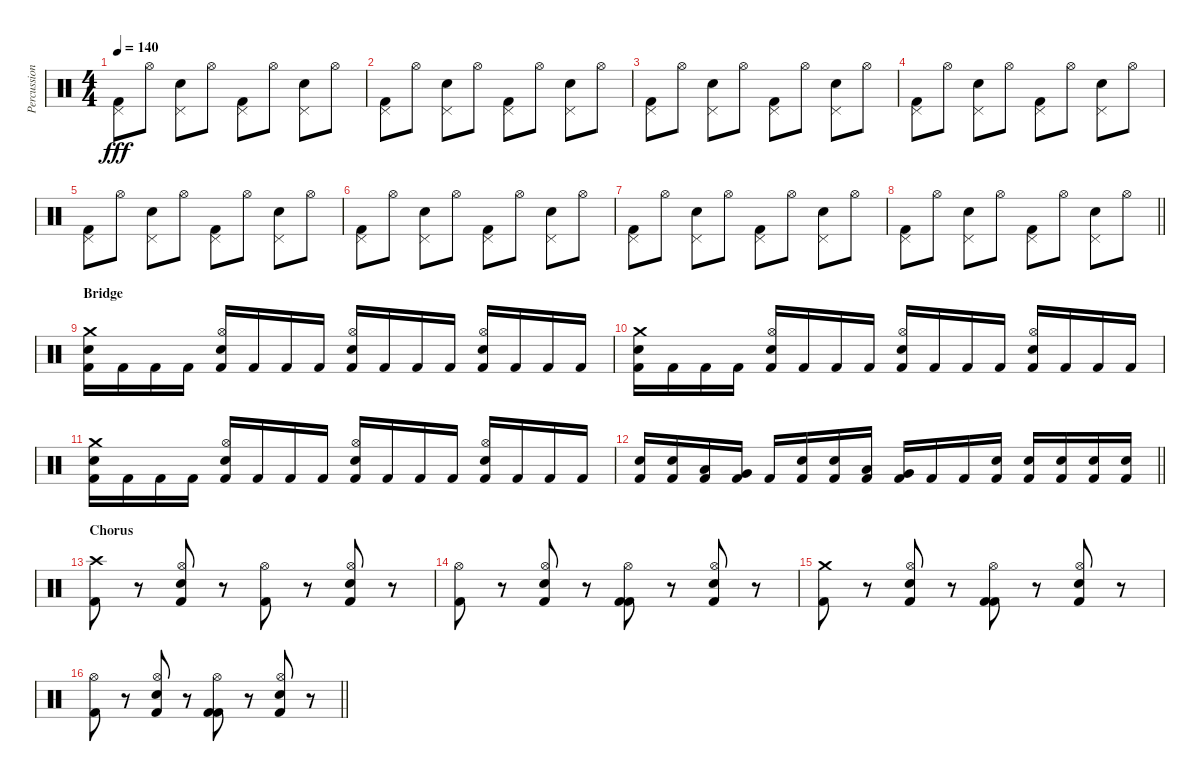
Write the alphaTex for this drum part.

\track ("Percussion" "Percussion") {instrument percussion}
\staff {score}
\articulation defaults
\ts (4 4)
\tempo 140
\clef neutral
\ks c
("Pedal Hi-Hat (hit)" "Kick (hit) 2").8{dy fff} "Hi-Hat (open)".8 ("Pedal Hi-Hat (hit)" "Electric Snare (hit)").8 "Hi-Hat (open)".8 ("Pedal Hi-Hat (hit)" "Kick (hit) 2").8 "Hi-Hat (open)".8 ("Pedal Hi-Hat (hit)" "Electric Snare (hit)").8 "Hi-Hat (open)".8 |
("Pedal Hi-Hat (hit)" "Kick (hit) 2").8 "Hi-Hat (open)".8 ("Pedal Hi-Hat (hit)" "Electric Snare (hit)").8 "Hi-Hat (open)".8 ("Pedal Hi-Hat (hit)" "Kick (hit) 2").8 "Hi-Hat (open)".8 ("Pedal Hi-Hat (hit)" "Electric Snare (hit)").8 "Hi-Hat (open)".8 |
("Pedal Hi-Hat (hit)" "Kick (hit) 2").8 "Hi-Hat (open)".8 ("Pedal Hi-Hat (hit)" "Electric Snare (hit)").8 "Hi-Hat (open)".8 ("Pedal Hi-Hat (hit)" "Kick (hit) 2").8 "Hi-Hat (open)".8 ("Pedal Hi-Hat (hit)" "Electric Snare (hit)").8 "Hi-Hat (open)".8 |
("Pedal Hi-Hat (hit)" "Kick (hit) 2").8 "Hi-Hat (open)".8 ("Pedal Hi-Hat (hit)" "Electric Snare (hit)").8 "Hi-Hat (open)".8 ("Pedal Hi-Hat (hit)" "Kick (hit) 2").8 "Hi-Hat (open)".8 ("Pedal Hi-Hat (hit)" "Electric Snare (hit)").8 "Hi-Hat (open)".8 |
("Pedal Hi-Hat (hit)" "Kick (hit) 2").8 "Hi-Hat (open)".8 ("Pedal Hi-Hat (hit)" "Electric Snare (hit)").8 "Hi-Hat (open)".8 ("Pedal Hi-Hat (hit)" "Kick (hit) 2").8 "Hi-Hat (open)".8 ("Pedal Hi-Hat (hit)" "Electric Snare (hit)").8 "Hi-Hat (open)".8 |
("Pedal Hi-Hat (hit)" "Kick (hit) 2").8 "Hi-Hat (open)".8 ("Pedal Hi-Hat (hit)" "Electric Snare (hit)").8 "Hi-Hat (open)".8 ("Pedal Hi-Hat (hit)" "Kick (hit) 2").8 "Hi-Hat (open)".8 ("Pedal Hi-Hat (hit)" "Electric Snare (hit)").8 "Hi-Hat (open)".8 |
("Pedal Hi-Hat (hit)" "Kick (hit) 2").8 "Hi-Hat (open)".8 ("Pedal Hi-Hat (hit)" "Electric Snare (hit)").8 "Hi-Hat (open)".8 ("Pedal Hi-Hat (hit)" "Kick (hit) 2").8 "Hi-Hat (open)".8 ("Pedal Hi-Hat (hit)" "Electric Snare (hit)").8 "Hi-Hat (open)".8 |
\barLineRight lightlight
("Pedal Hi-Hat (hit)" "Kick (hit) 2").8 "Hi-Hat (open)".8 ("Pedal Hi-Hat (hit)" "Electric Snare (hit)").8 "Hi-Hat (open)".8 ("Pedal Hi-Hat (hit)" "Kick (hit) 2").8 "Hi-Hat (open)".8 ("Pedal Hi-Hat (hit)" "Electric Snare (hit)").8 "Hi-Hat (open)".8 |
\section ("" "Bridge")
("Electric Snare (hit)" "Crash medium (hit)" "Kick (hit) 2").16 "Kick (hit) 2".16 "Kick (hit) 2".16 "Kick (hit) 2".16 ("Electric Snare (hit)" "Hi-Hat (open)" "Kick (hit) 2").16 "Kick (hit) 2".16 "Kick (hit) 2".16 "Kick (hit) 2".16 ("Electric Snare (hit)" "Hi-Hat (open)" "Kick (hit) 2").16 "Kick (hit) 2".16 "Kick (hit) 2".16 "Kick (hit) 2".16 ("Electric Snare (hit)" "Hi-Hat (open)" "Kick (hit) 2").16 "Kick (hit) 2".16 "Kick (hit) 2".16 "Kick (hit) 2".16 |
("Electric Snare (hit)" "Crash medium (hit)" "Kick (hit) 2").16 "Kick (hit) 2".16 "Kick (hit) 2".16 "Kick (hit) 2".16 ("Electric Snare (hit)" "Hi-Hat (open)" "Kick (hit) 2").16 "Kick (hit) 2".16 "Kick (hit) 2".16 "Kick (hit) 2".16 ("Electric Snare (hit)" "Hi-Hat (open)" "Kick (hit) 2").16 "Kick (hit) 2".16 "Kick (hit) 2".16 "Kick (hit) 2".16 ("Electric Snare (hit)" "Hi-Hat (open)" "Kick (hit) 2").16 "Kick (hit) 2".16 "Kick (hit) 2".16 "Kick (hit) 2".16 |
("Electric Snare (hit)" "Crash medium (hit)" "Kick (hit) 2").16 "Kick (hit) 2".16 "Kick (hit) 2".16 "Kick (hit) 2".16 ("Electric Snare (hit)" "Hi-Hat (open)" "Kick (hit) 2").16 "Kick (hit) 2".16 "Kick (hit) 2".16 "Kick (hit) 2".16 ("Electric Snare (hit)" "Hi-Hat (open)" "Kick (hit) 2").16 "Kick (hit) 2".16 "Kick (hit) 2".16 "Kick (hit) 2".16 ("Electric Snare (hit)" "Hi-Hat (open)" "Kick (hit) 2").16 "Kick (hit) 2".16 "Kick (hit) 2".16 "Kick (hit) 2".16 |
\barLineRight lightlight
("Electric Snare (hit)" "Kick (hit) 2").16 ("Electric Snare (hit)" "Kick (hit) 2").16 ("Low Tom (hit)" "Kick (hit) 2").16 ("Very Low Tom (hit)" "Kick (hit) 2").16 "Kick (hit) 2".16 ("Electric Snare (hit)" "Kick (hit) 2").16 ("Electric Snare (hit)" "Kick (hit) 2").16 ("Low Tom (hit)" "Kick (hit) 2").16 ("Very Low Tom (hit)" "Kick (hit) 2").16 "Kick (hit) 2".16 "Kick (hit) 2".16 ("Electric Snare (hit)" "Kick (hit) 2").16 ("Electric Snare (hit)" "Kick (hit) 2").16 ("Electric Snare (hit)" "Kick (hit) 2").16 ("Electric Snare (hit)" "Kick (hit) 2").16 ("Electric Snare (hit)" "Kick (hit) 2").16 |
\section ("" "Chorus")
("Crash high (hit)" "Kick (hit) 2").8 r.8 ("Kick (hit) 2" "Hi-Hat (open)" "Electric Snare (hit)").8 r.8 ("Hi-Hat (open)" "Kick (hit) 2").8 r.8 ("Kick (hit) 2" "Hi-Hat (open)" "Electric Snare (hit)").8 r.8 |
("Hi-Hat (open)" "Kick (hit) 2").8 r.8 ("Kick (hit) 2" "Hi-Hat (open)" "Electric Snare (hit)").8 r.8 ("Kick (hit) 2" "Hi-Hat (open)" "Kick (hit) 2").8 r.8 ("Kick (hit) 2" "Hi-Hat (open)" "Electric Snare (hit)").8 r.8 |
("Crash medium (hit)" "Kick (hit) 2").8 r.8 ("Kick (hit) 2" "Hi-Hat (open)" "Electric Snare (hit)").8 r.8 ("Kick (hit) 2" "Hi-Hat (open)" "Kick (hit) 2").8 r.8 ("Kick (hit) 2" "Hi-Hat (open)" "Electric Snare (hit)").8 r.8 |
\barLineRight lightlight
("Hi-Hat (open)" "Kick (hit) 2").8 r.8 ("Kick (hit) 2" "Hi-Hat (open)" "Electric Snare (hit)").8 r.8 ("Kick (hit) 2" "Hi-Hat (open)" "Kick (hit) 2").8 r.8 ("Kick (hit) 2" "Hi-Hat (open)" "Electric Snare (hit)").8 r.8
